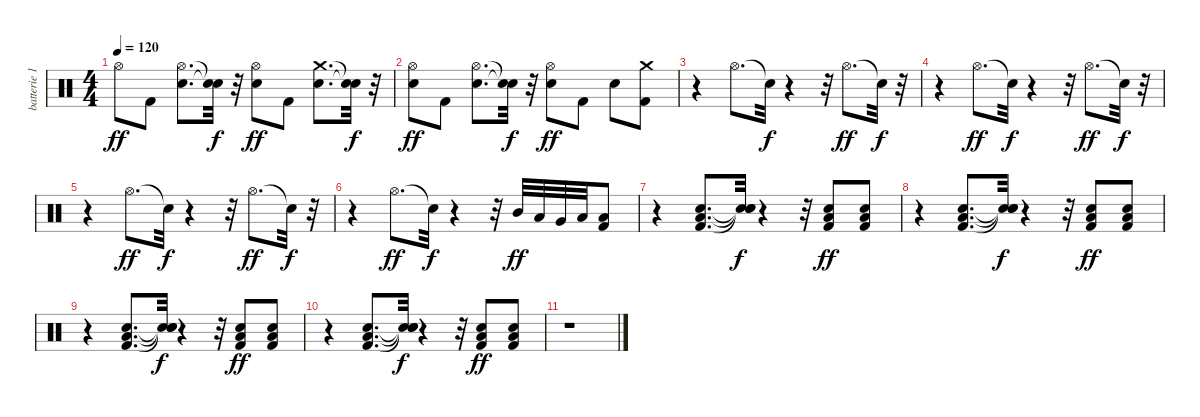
\track ("batterie 1" "batterie 1") {instrument percussion}
\staff {score}
\articulation defaults
\ts (4 4)
\tempo 120
\clef neutral
\ks c "Hi-Hat (open)".8{dy ff} "Kick (hit) 2".8
("Electric Snare (hit)" "Hi-Hat (open)").8{d} ("Snare (hit)"{t} "Snare (hit)"{t}).32{dy f} r.32 ("Electric Snare (hit)" "Hi-Hat (open)").8{dy ff} "Kick (hit) 2".8 ("Electric Snare (hit)" "Crash medium (hit)").8{d} ("Snare (hit)"{t} "Snare (hit)"{t}).32{dy f} r.32 |
("Electric Snare (hit)" "Hi-Hat (open)").8{dy ff} "Kick (hit) 2".8 ("Electric Snare (hit)" "Hi-Hat (open)").8{d} ("Snare (hit)"{t} "Snare (hit)"{t}).32{dy f} r.32 ("Electric Snare (hit)" "Hi-Hat (open)").8{dy ff} "Kick (hit) 2".8 "Electric Snare (hit)".8 ("Kick (hit) 2" "Crash medium (hit)").8 |
r.4 "Hi-Hat (open)".8{d} "Snare (hit)"{t}.32{dy f} r.4 r.32 "Hi-Hat (open)".8{d dy ff} "Snare (hit)"{t}.32{dy f} r.32 |
r.4 "Hi-Hat (open)".8{d dy ff} "Snare (hit)"{t}.32{dy f} r.4 r.32 "Hi-Hat (open)".8{d dy ff} "Snare (hit)"{t}.32{dy f} r.32 |
r.4 "Hi-Hat (open)".8{d dy ff} "Snare (hit)"{t}.32{dy f} r.4 r.32 "Hi-Hat (open)".8{d dy ff} "Snare (hit)"{t}.32{dy f} r.32 |
r.4 "Hi-Hat (open)".8{d dy ff} "Snare (hit)"{t}.32{dy f} r.4 r.32 "Mid Tom (hit)".32{dy ff} "Low Tom (hit)".32 "Very Low Tom (hit)".32 "Low Floor Tom (hit)".32 ("Kick (hit) 2" "Low Floor Tom (hit)").8 |
r.4 ("Kick (hit) 2" "Electric Snare (hit)" "Low Floor Tom (hit)").8{d} ("Snare (hit)"{t} "Snare (hit)"{t} "Snare (hit)"{t}).32{dy f} r.4 r.32 ("Kick (hit) 2" "Electric Snare (hit)" "Low Floor Tom (hit)").8{dy ff} ("Kick (hit) 2" "Electric Snare (hit)" "Low Floor Tom (hit)").8 |
r.4 ("Kick (hit) 2" "Electric Snare (hit)" "Low Floor Tom (hit)").8{d} ("Snare (hit)"{t} "Snare (hit)"{t} "Snare (hit)"{t}).32{dy f} r.4 r.32 ("Kick (hit) 2" "Electric Snare (hit)" "Low Floor Tom (hit)").8{dy ff} ("Kick (hit) 2" "Electric Snare (hit)" "Low Floor Tom (hit)").8 |
r.4 ("Kick (hit) 2" "Electric Snare (hit)" "Low Floor Tom (hit)").8{d} ("Snare (hit)"{t} "Snare (hit)"{t} "Snare (hit)"{t}).32{dy f} r.4 r.32 ("Kick (hit) 2" "Electric Snare (hit)" "Low Floor Tom (hit)").8{dy ff} ("Kick (hit) 2" "Electric Snare (hit)" "Low Floor Tom (hit)").8 |
r.4 ("Kick (hit) 2" "Electric Snare (hit)" "Low Floor Tom (hit)").8{d} ("Snare (hit)"{t} "Snare (hit)"{t} "Snare (hit)"{t}).32{dy f} r.4 r.32 ("Kick (hit) 2" "Electric Snare (hit)" "Low Floor Tom (hit)").8{dy ff} ("Kick (hit) 2" "Electric Snare (hit)" "Low Floor Tom (hit)").8 |
r.1
